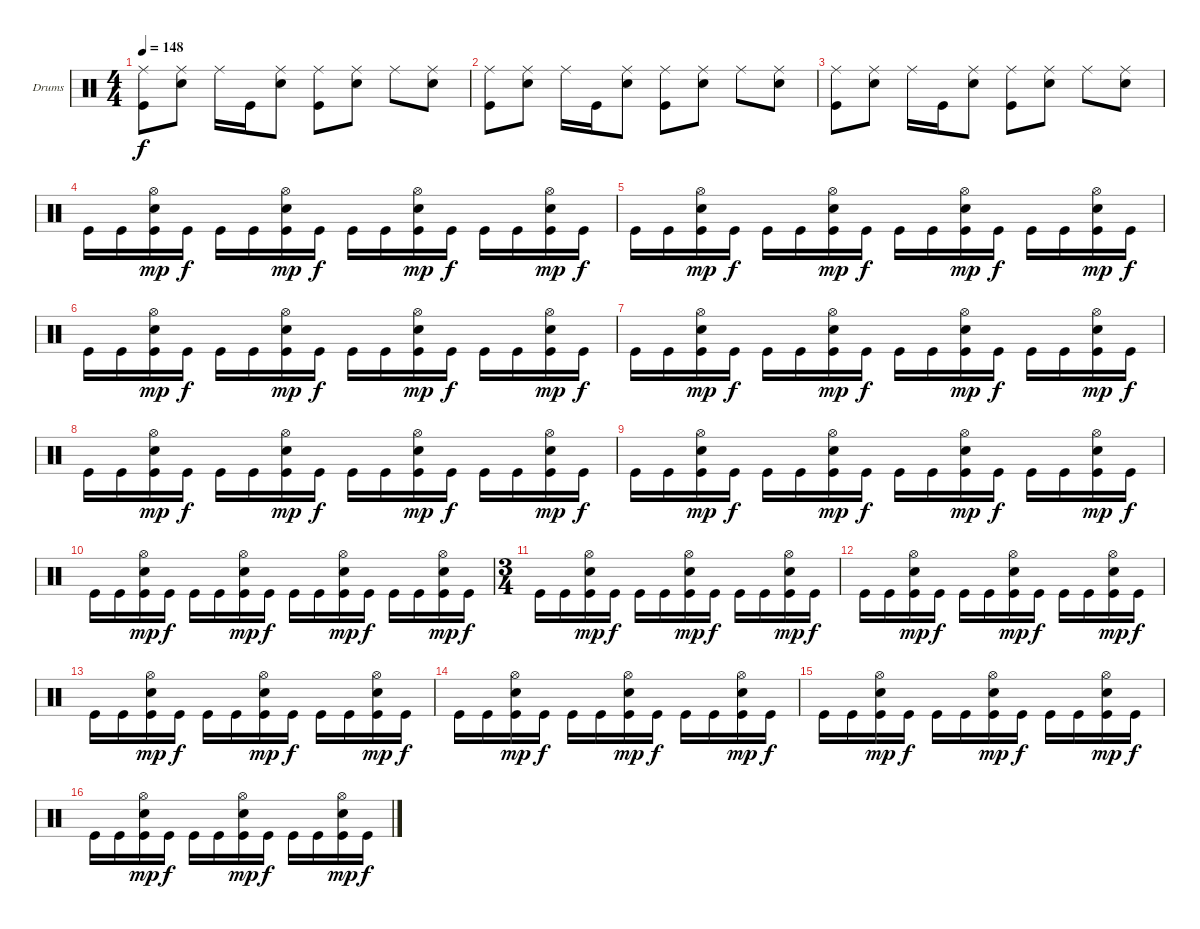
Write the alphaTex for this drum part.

\bracketExtendMode groupsimilarinstruments
\firstSystemTrackNameOrientation horizontal
\otherSystemsTrackNameOrientation horizontal
\track ("Drumkit" "Drums") {instrument percussion}
\staff {score}
\articulation defaults
\ts (4 4)
\tempo 148
\clef neutral
\ks c
("Ride (middle)" "Kick (hit)").8{dy f} ("Ride (middle)" "Snare (hit) 2").8 "Ride (middle)".16 "Kick (hit)".16 ("Ride (middle)" "Snare (hit) 2").8 ("Ride (middle)" "Kick (hit)").8 ("Ride (middle)" "Snare (hit) 2").8 "Ride (middle)".8 ("Ride (middle)" "Snare (hit) 2").8 |
("Ride (middle)" "Kick (hit)").8 ("Ride (middle)" "Snare (hit) 2").8 "Ride (middle)".16 "Kick (hit)".16 ("Ride (middle)" "Snare (hit) 2").8 ("Ride (middle)" "Kick (hit)").8 ("Ride (middle)" "Snare (hit) 2").8 "Ride (middle)".8 ("Ride (middle)" "Snare (hit) 2").8 |
("Ride (middle)" "Kick (hit)").8 ("Ride (middle)" "Snare (hit) 2").8 "Ride (middle)".16 "Kick (hit)".16 ("Ride (middle)" "Snare (hit) 2").8 ("Ride (middle)" "Kick (hit)").8 ("Ride (middle)" "Snare (hit) 2").8 "Ride (middle)".8 ("Ride (middle)" "Snare (hit) 2").8 |
"Kick (hit)".16 "Kick (hit)".16 ("Hi-Hat (open)" "Kick (hit)" "Snare (hit) 2").16{dy mp} "Kick (hit)".16{dy f} "Kick (hit)".16 "Kick (hit)".16 ("Hi-Hat (open)" "Kick (hit)" "Snare (hit) 2").16{dy mp} "Kick (hit)".16{dy f} "Kick (hit)".16 "Kick (hit)".16 ("Hi-Hat (open)" "Kick (hit)" "Snare (hit) 2").16{dy mp} "Kick (hit)".16{dy f} "Kick (hit)".16 "Kick (hit)".16 ("Hi-Hat (open)" "Kick (hit)" "Snare (hit) 2").16{dy mp} "Kick (hit)".16{dy f} |
"Kick (hit)".16 "Kick (hit)".16 ("Hi-Hat (open)" "Kick (hit)" "Snare (hit) 2").16{dy mp} "Kick (hit)".16{dy f} "Kick (hit)".16 "Kick (hit)".16 ("Hi-Hat (open)" "Kick (hit)" "Snare (hit) 2").16{dy mp} "Kick (hit)".16{dy f} "Kick (hit)".16 "Kick (hit)".16 ("Hi-Hat (open)" "Kick (hit)" "Snare (hit) 2").16{dy mp} "Kick (hit)".16{dy f} "Kick (hit)".16 "Kick (hit)".16 ("Hi-Hat (open)" "Kick (hit)" "Snare (hit) 2").16{dy mp} "Kick (hit)".16{dy f} |
"Kick (hit)".16 "Kick (hit)".16 ("Hi-Hat (open)" "Kick (hit)" "Snare (hit) 2").16{dy mp} "Kick (hit)".16{dy f} "Kick (hit)".16 "Kick (hit)".16 ("Hi-Hat (open)" "Kick (hit)" "Snare (hit) 2").16{dy mp} "Kick (hit)".16{dy f} "Kick (hit)".16 "Kick (hit)".16 ("Hi-Hat (open)" "Kick (hit)" "Snare (hit) 2").16{dy mp} "Kick (hit)".16{dy f} "Kick (hit)".16 "Kick (hit)".16 ("Hi-Hat (open)" "Kick (hit)" "Snare (hit) 2").16{dy mp} "Kick (hit)".16{dy f} |
"Kick (hit)".16 "Kick (hit)".16 ("Hi-Hat (open)" "Kick (hit)" "Snare (hit) 2").16{dy mp} "Kick (hit)".16{dy f} "Kick (hit)".16 "Kick (hit)".16 ("Hi-Hat (open)" "Kick (hit)" "Snare (hit) 2").16{dy mp} "Kick (hit)".16{dy f} "Kick (hit)".16 "Kick (hit)".16 ("Hi-Hat (open)" "Kick (hit)" "Snare (hit) 2").16{dy mp} "Kick (hit)".16{dy f} "Kick (hit)".16 "Kick (hit)".16 ("Hi-Hat (open)" "Kick (hit)" "Snare (hit) 2").16{dy mp} "Kick (hit)".16{dy f} |
"Kick (hit)".16 "Kick (hit)".16 ("Hi-Hat (open)" "Kick (hit)" "Snare (hit) 2").16{dy mp} "Kick (hit)".16{dy f} "Kick (hit)".16 "Kick (hit)".16 ("Hi-Hat (open)" "Kick (hit)" "Snare (hit) 2").16{dy mp} "Kick (hit)".16{dy f} "Kick (hit)".16 "Kick (hit)".16 ("Hi-Hat (open)" "Kick (hit)" "Snare (hit) 2").16{dy mp} "Kick (hit)".16{dy f} "Kick (hit)".16 "Kick (hit)".16 ("Hi-Hat (open)" "Kick (hit)" "Snare (hit) 2").16{dy mp} "Kick (hit)".16{dy f} |
"Kick (hit)".16 "Kick (hit)".16 ("Hi-Hat (open)" "Kick (hit)" "Snare (hit) 2").16{dy mp} "Kick (hit)".16{dy f} "Kick (hit)".16 "Kick (hit)".16 ("Hi-Hat (open)" "Kick (hit)" "Snare (hit) 2").16{dy mp} "Kick (hit)".16{dy f} "Kick (hit)".16 "Kick (hit)".16 ("Hi-Hat (open)" "Kick (hit)" "Snare (hit) 2").16{dy mp} "Kick (hit)".16{dy f} "Kick (hit)".16 "Kick (hit)".16 ("Hi-Hat (open)" "Kick (hit)" "Snare (hit) 2").16{dy mp} "Kick (hit)".16{dy f} |
"Kick (hit)".16 "Kick (hit)".16 ("Hi-Hat (open)" "Kick (hit)" "Snare (hit) 2").16{dy mp} "Kick (hit)".16{dy f} "Kick (hit)".16 "Kick (hit)".16 ("Hi-Hat (open)" "Kick (hit)" "Snare (hit) 2").16{dy mp} "Kick (hit)".16{dy f} "Kick (hit)".16 "Kick (hit)".16 ("Hi-Hat (open)" "Kick (hit)" "Snare (hit) 2").16{dy mp} "Kick (hit)".16{dy f} "Kick (hit)".16 "Kick (hit)".16 ("Hi-Hat (open)" "Kick (hit)" "Snare (hit) 2").16{dy mp} "Kick (hit)".16{dy f} |
\ts (3 4)
\beaming (8 2 2 2)
"Kick (hit)".16 "Kick (hit)".16 ("Hi-Hat (open)" "Kick (hit)" "Snare (hit) 2").16{dy mp} "Kick (hit)".16{dy f} "Kick (hit)".16 "Kick (hit)".16 ("Hi-Hat (open)" "Kick (hit)" "Snare (hit) 2").16{dy mp} "Kick (hit)".16{dy f} "Kick (hit)".16 "Kick (hit)".16 ("Hi-Hat (open)" "Kick (hit)" "Snare (hit) 2").16{dy mp} "Kick (hit)".16{dy f} |
"Kick (hit)".16 "Kick (hit)".16 ("Hi-Hat (open)" "Kick (hit)" "Snare (hit) 2").16{dy mp} "Kick (hit)".16{dy f} "Kick (hit)".16 "Kick (hit)".16 ("Hi-Hat (open)" "Kick (hit)" "Snare (hit) 2").16{dy mp} "Kick (hit)".16{dy f} "Kick (hit)".16 "Kick (hit)".16 ("Hi-Hat (open)" "Kick (hit)" "Snare (hit) 2").16{dy mp} "Kick (hit)".16{dy f} |
"Kick (hit)".16 "Kick (hit)".16 ("Hi-Hat (open)" "Kick (hit)" "Snare (hit) 2").16{dy mp} "Kick (hit)".16{dy f} "Kick (hit)".16 "Kick (hit)".16 ("Hi-Hat (open)" "Kick (hit)" "Snare (hit) 2").16{dy mp} "Kick (hit)".16{dy f} "Kick (hit)".16 "Kick (hit)".16 ("Hi-Hat (open)" "Kick (hit)" "Snare (hit) 2").16{dy mp} "Kick (hit)".16{dy f} |
"Kick (hit)".16 "Kick (hit)".16 ("Hi-Hat (open)" "Kick (hit)" "Snare (hit) 2").16{dy mp} "Kick (hit)".16{dy f} "Kick (hit)".16 "Kick (hit)".16 ("Hi-Hat (open)" "Kick (hit)" "Snare (hit) 2").16{dy mp} "Kick (hit)".16{dy f} "Kick (hit)".16 "Kick (hit)".16 ("Hi-Hat (open)" "Kick (hit)" "Snare (hit) 2").16{dy mp} "Kick (hit)".16{dy f} |
"Kick (hit)".16 "Kick (hit)".16 ("Hi-Hat (open)" "Kick (hit)" "Snare (hit) 2").16{dy mp} "Kick (hit)".16{dy f} "Kick (hit)".16 "Kick (hit)".16 ("Hi-Hat (open)" "Kick (hit)" "Snare (hit) 2").16{dy mp} "Kick (hit)".16{dy f} "Kick (hit)".16 "Kick (hit)".16 ("Hi-Hat (open)" "Kick (hit)" "Snare (hit) 2").16{dy mp} "Kick (hit)".16{dy f} |
"Kick (hit)".16 "Kick (hit)".16 ("Hi-Hat (open)" "Kick (hit)" "Snare (hit) 2").16{dy mp} "Kick (hit)".16{dy f} "Kick (hit)".16 "Kick (hit)".16 ("Hi-Hat (open)" "Kick (hit)" "Snare (hit) 2").16{dy mp} "Kick (hit)".16{dy f} "Kick (hit)".16 "Kick (hit)".16 ("Hi-Hat (open)" "Kick (hit)" "Snare (hit) 2").16{dy mp} "Kick (hit)".16{dy f}
